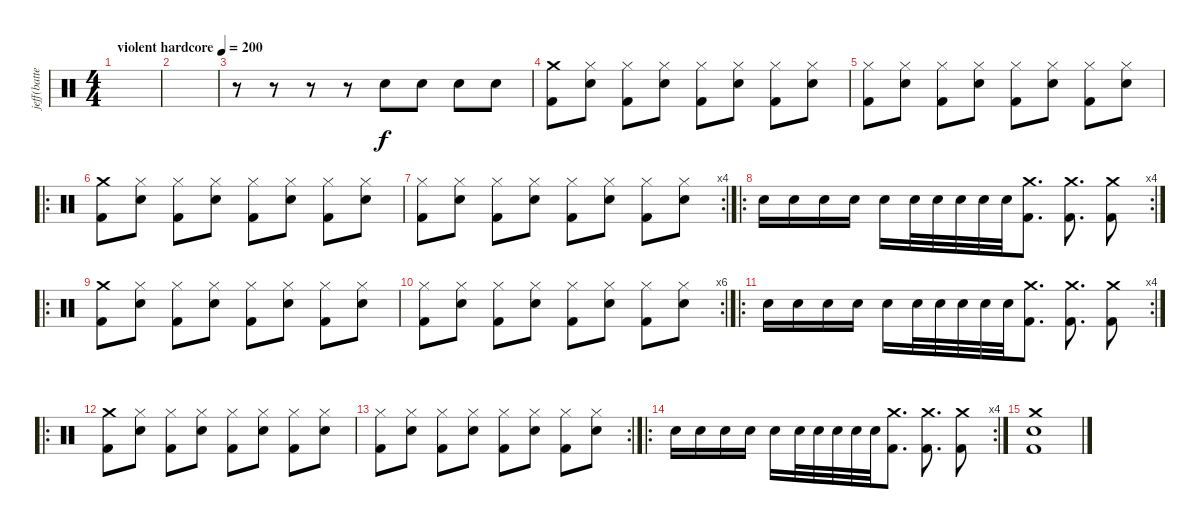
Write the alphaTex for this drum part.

\track ("jeff(batterie)" "jeff(batte") {instrument percussion}
\staff {score}
\articulation defaults
\ts (4 4)
\tempo (200 "violent hardcore")
\clef neutral
\ks c
|
|
r.8 r.8 r.8 r.8 "Snare (hit) 2".8 "Snare (hit) 2".8 "Snare (hit) 2".8 "Snare (hit) 2".8 |
("Crash medium (hit)" "Kick (hit) 2").8 ("Hi-Hat (closed)" "Snare (hit) 2").8 ("Hi-Hat (closed)" "Kick (hit) 2").8 ("Hi-Hat (closed)" "Snare (hit) 2").8 ("Hi-Hat (closed)" "Kick (hit) 2").8 ("Hi-Hat (closed)" "Snare (hit) 2").8 ("Hi-Hat (closed)" "Kick (hit) 2").8 ("Hi-Hat (closed)" "Snare (hit) 2").8 |
("Hi-Hat (closed)" "Kick (hit) 2").8 ("Hi-Hat (closed)" "Snare (hit) 2").8 ("Hi-Hat (closed)" "Kick (hit) 2").8 ("Hi-Hat (closed)" "Snare (hit) 2").8 ("Hi-Hat (closed)" "Kick (hit) 2").8 ("Hi-Hat (closed)" "Snare (hit) 2").8 ("Hi-Hat (closed)" "Kick (hit) 2").8 ("Hi-Hat (closed)" "Snare (hit) 2").8 |
\ro
("Crash medium (hit)" "Kick (hit) 2").8 ("Hi-Hat (closed)" "Snare (hit) 2").8 ("Hi-Hat (closed)" "Kick (hit) 2").8 ("Hi-Hat (closed)" "Snare (hit) 2").8 ("Hi-Hat (closed)" "Kick (hit) 2").8 ("Hi-Hat (closed)" "Snare (hit) 2").8 ("Hi-Hat (closed)" "Kick (hit) 2").8 ("Hi-Hat (closed)" "Snare (hit) 2").8 |
\rc 4
("Hi-Hat (closed)" "Kick (hit) 2").8 ("Hi-Hat (closed)" "Snare (hit) 2").8 ("Hi-Hat (closed)" "Kick (hit) 2").8 ("Hi-Hat (closed)" "Snare (hit) 2").8 ("Hi-Hat (closed)" "Kick (hit) 2").8 ("Hi-Hat (closed)" "Snare (hit) 2").8 ("Hi-Hat (closed)" "Kick (hit) 2").8 ("Hi-Hat (closed)" "Snare (hit) 2").8 |
\ro
\rc 4 "Snare (hit) 2".16 "Snare (hit) 2".16 "Snare (hit) 2".16 "Snare (hit) 2".16 "Snare (hit) 2".16 "Snare (hit) 2".32 "Snare (hit) 2".32 "Snare (hit) 2".32 "Snare (hit) 2".32 "Snare (hit) 2".32
("Crash medium (hit)" "Kick (hit) 2").8{d} ("Crash medium (hit)" "Kick (hit) 2").8{d} ("Crash medium (hit)" "Kick (hit) 2").8 |
\ro
("Crash medium (hit)" "Kick (hit) 2").8 ("Hi-Hat (closed)" "Snare (hit) 2").8 ("Hi-Hat (closed)" "Kick (hit) 2").8 ("Hi-Hat (closed)" "Snare (hit) 2").8 ("Hi-Hat (closed)" "Kick (hit) 2").8 ("Hi-Hat (closed)" "Snare (hit) 2").8 ("Hi-Hat (closed)" "Kick (hit) 2").8 ("Hi-Hat (closed)" "Snare (hit) 2").8 |
\rc 6
("Hi-Hat (closed)" "Kick (hit) 2").8 ("Hi-Hat (closed)" "Snare (hit) 2").8 ("Hi-Hat (closed)" "Kick (hit) 2").8 ("Hi-Hat (closed)" "Snare (hit) 2").8 ("Hi-Hat (closed)" "Kick (hit) 2").8 ("Hi-Hat (closed)" "Snare (hit) 2").8 ("Hi-Hat (closed)" "Kick (hit) 2").8 ("Hi-Hat (closed)" "Snare (hit) 2").8 |
\ro
\rc 4 "Snare (hit) 2".16 "Snare (hit) 2".16 "Snare (hit) 2".16 "Snare (hit) 2".16 "Snare (hit) 2".16 "Snare (hit) 2".32 "Snare (hit) 2".32 "Snare (hit) 2".32 "Snare (hit) 2".32 "Snare (hit) 2".32
("Crash medium (hit)" "Kick (hit) 2").8{d} ("Crash medium (hit)" "Kick (hit) 2").8{d} ("Crash medium (hit)" "Kick (hit) 2").8 |
\ro
("Crash medium (hit)" "Kick (hit) 2").8 ("Hi-Hat (closed)" "Snare (hit) 2").8 ("Hi-Hat (closed)" "Kick (hit) 2").8 ("Hi-Hat (closed)" "Snare (hit) 2").8 ("Hi-Hat (closed)" "Kick (hit) 2").8 ("Hi-Hat (closed)" "Snare (hit) 2").8 ("Hi-Hat (closed)" "Kick (hit) 2").8 ("Hi-Hat (closed)" "Snare (hit) 2").8 |
\rc 2
("Hi-Hat (closed)" "Kick (hit) 2").8 ("Hi-Hat (closed)" "Snare (hit) 2").8 ("Hi-Hat (closed)" "Kick (hit) 2").8 ("Hi-Hat (closed)" "Snare (hit) 2").8 ("Hi-Hat (closed)" "Kick (hit) 2").8 ("Hi-Hat (closed)" "Snare (hit) 2").8 ("Hi-Hat (closed)" "Kick (hit) 2").8 ("Hi-Hat (closed)" "Snare (hit) 2").8 |
\ro
\rc 4 "Snare (hit) 2".16 "Snare (hit) 2".16 "Snare (hit) 2".16 "Snare (hit) 2".16 "Snare (hit) 2".16 "Snare (hit) 2".32 "Snare (hit) 2".32 "Snare (hit) 2".32 "Snare (hit) 2".32 "Snare (hit) 2".32
("Crash medium (hit)" "Kick (hit) 2").8{d} ("Crash medium (hit)" "Kick (hit) 2").8{d} ("Crash medium (hit)" "Kick (hit) 2").8 |
("Crash medium (hit)" "Snare (hit) 2" "Kick (hit) 2").1
